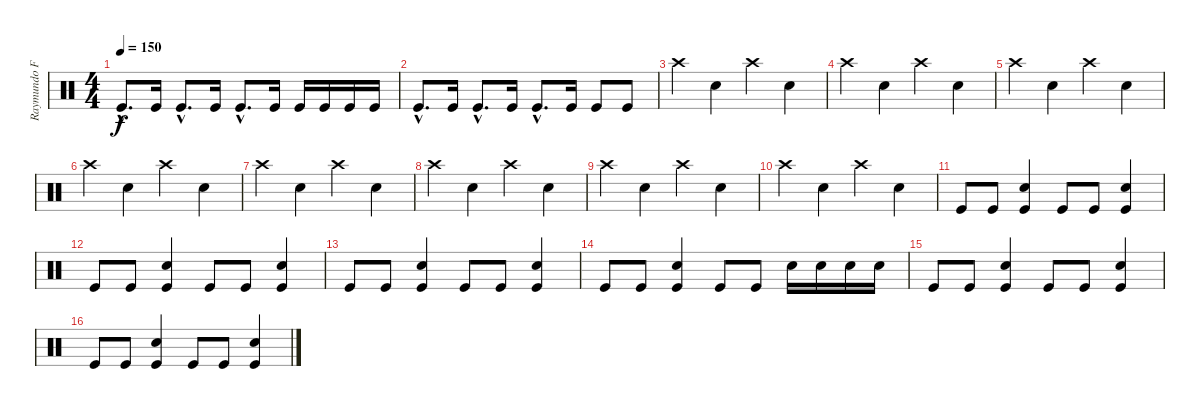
\track ("Raymundo Fajardo" "Raymundo F") {instrument percussion}
\staff {score}
\articulation defaults
\ts (4 4)
\tempo 150
\clef neutral
\ks c "Kick (hit)"{hac}.8{d dy f} "Kick (hit)".16 "Kick (hit)"{hac}.8{d} "Kick (hit)".16 "Kick (hit)"{hac}.8{d} "Kick (hit)".16 "Kick (hit)".16 "Kick (hit)".16 "Kick (hit)".16 "Kick (hit)".16
|
"Kick (hit)"{hac}.8{d} "Kick (hit)".16 "Kick (hit)"{hac}.8{d} "Kick (hit)".16 "Kick (hit)"{hac}.8{d} "Kick (hit)".16 "Kick (hit)".8 "Kick (hit)".8 |
"Crash high (hit)".4 "Electric Snare (hit)".4 "Crash high (hit)".4 "Electric Snare (hit)".4 |
"Crash high (hit)".4 "Electric Snare (hit)".4 "Crash high (hit)".4 "Electric Snare (hit)".4 |
"Crash high (hit)".4 "Electric Snare (hit)".4 "Crash high (hit)".4 "Electric Snare (hit)".4 |
"Crash high (hit)".4 "Electric Snare (hit)".4 "Crash high (hit)".4 "Electric Snare (hit)".4 |
"Crash high (hit)".4 "Electric Snare (hit)".4 "Crash high (hit)".4 "Electric Snare (hit)".4 |
"Crash high (hit)".4 "Electric Snare (hit)".4 "Crash high (hit)".4 "Electric Snare (hit)".4 |
"Crash high (hit)".4 "Electric Snare (hit)".4 "Crash high (hit)".4 "Electric Snare (hit)".4 |
"Crash high (hit)".4 "Electric Snare (hit)".4 "Crash high (hit)".4 "Electric Snare (hit)".4 |
"Kick (hit)".8 "Kick (hit)".8 ("Kick (hit)" "Electric Snare (hit)").4 "Kick (hit)".8 "Kick (hit)".8 ("Kick (hit)" "Electric Snare (hit)").4 |
"Kick (hit)".8 "Kick (hit)".8 ("Kick (hit)" "Electric Snare (hit)").4 "Kick (hit)".8 "Kick (hit)".8 ("Kick (hit)" "Electric Snare (hit)").4 |
"Kick (hit)".8 "Kick (hit)".8 ("Kick (hit)" "Electric Snare (hit)").4 "Kick (hit)".8 "Kick (hit)".8 ("Kick (hit)" "Electric Snare (hit)").4 |
"Kick (hit)".8 "Kick (hit)".8 ("Kick (hit)" "Electric Snare (hit)").4 "Kick (hit)".8 "Kick (hit)".8 "Electric Snare (hit)".16 "Electric Snare (hit)".16 "Electric Snare (hit)".16 "Electric Snare (hit)".16 |
"Kick (hit)".8 "Kick (hit)".8 ("Kick (hit)" "Electric Snare (hit)").4 "Kick (hit)".8 "Kick (hit)".8 ("Kick (hit)" "Electric Snare (hit)").4 |
"Kick (hit)".8 "Kick (hit)".8 ("Kick (hit)" "Electric Snare (hit)").4 "Kick (hit)".8 "Kick (hit)".8 ("Kick (hit)" "Electric Snare (hit)").4
